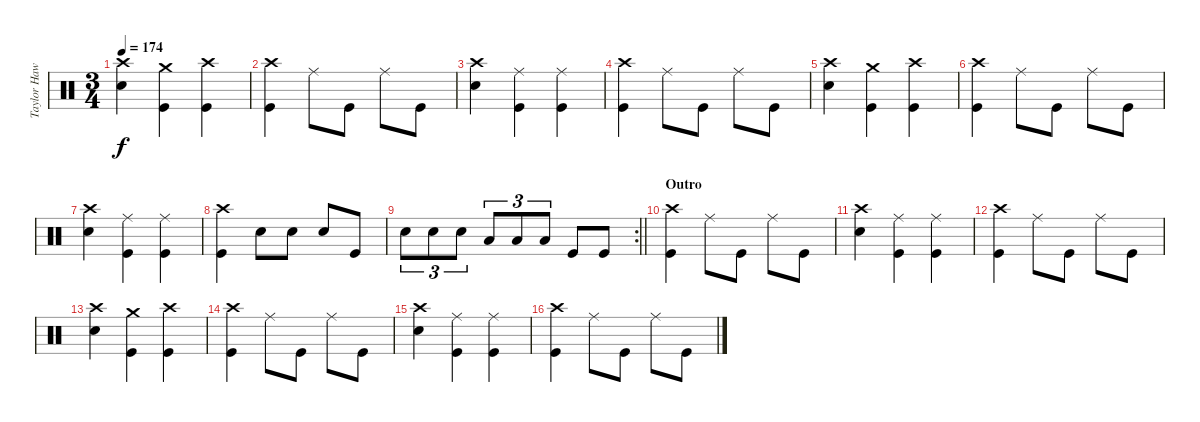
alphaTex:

\track ("Taylor Hawkins - Drums" "Taylor Haw") {instrument percussion}
\staff {score}
\articulation defaults
\ts (3 4)
\tempo 174
\clef neutral
\ks c
("Crash high (hit)" "Snare (hit) 2").4{dy f} ("Crash medium (hit)" "Kick (hit)").4 ("Crash high (hit)" "Kick (hit)").4 |
("Crash high (hit)" "Kick (hit)").4 "Ride (middle)".8 "Kick (hit)".8 "Ride (middle)".8 "Kick (hit)".8 |
("Crash high (hit)" "Snare (hit) 2").4 ("Ride (middle)" "Kick (hit)").4 ("Ride (middle)" "Kick (hit)").4 |
("Crash high (hit)" "Kick (hit)").4 "Ride (middle)".8 "Kick (hit)".8 "Ride (middle)".8 "Kick (hit)".8 |
("Crash high (hit)" "Snare (hit) 2").4 ("Crash medium (hit)" "Kick (hit)").4 ("Crash high (hit)" "Kick (hit)").4 |
("Crash high (hit)" "Kick (hit)").4 "Ride (middle)".8 "Kick (hit)".8 "Ride (middle)".8 "Kick (hit)".8 |
("Crash high (hit)" "Snare (hit) 2").4 ("Ride (middle)" "Kick (hit)").4 ("Ride (middle)" "Kick (hit)").4 |
("Crash high (hit)" "Kick (hit)").4 "Snare (hit) 2".8 "Snare (hit) 2".8 "Snare (hit) 2".8 "Kick (hit)".8 |
\rc 2
\barLineRight lightlight "Snare (hit) 2".8{tu (3 2)} "Snare (hit) 2".8{tu (3 2)} "Snare (hit) 2".8{tu (3 2)} "Low Tom (hit)".8{tu (3 2)} "Low Tom (hit)".8{tu (3 2)} "Low Tom (hit)".8{tu (3 2)} "Kick (hit)".8 "Kick (hit)".8
|
\section ("" "Outro")
("Crash high (hit)" "Kick (hit)").4 "Ride (middle)".8 "Kick (hit)".8 "Ride (middle)".8 "Kick (hit)".8 |
("Crash high (hit)" "Snare (hit) 2").4 ("Ride (middle)" "Kick (hit)").4 ("Ride (middle)" "Kick (hit)").4 |
("Crash high (hit)" "Kick (hit)").4 "Ride (middle)".8 "Kick (hit)".8 "Ride (middle)".8 "Kick (hit)".8 |
("Crash high (hit)" "Snare (hit) 2").4 ("Crash medium (hit)" "Kick (hit)").4 ("Crash high (hit)" "Kick (hit)").4 |
("Crash high (hit)" "Kick (hit)").4 "Ride (middle)".8 "Kick (hit)".8 "Ride (middle)".8 "Kick (hit)".8 |
("Crash high (hit)" "Snare (hit) 2").4 ("Ride (middle)" "Kick (hit)").4 ("Ride (middle)" "Kick (hit)").4 |
("Crash high (hit)" "Kick (hit)").4 "Ride (middle)".8 "Kick (hit)".8 "Ride (middle)".8 "Kick (hit)".8
